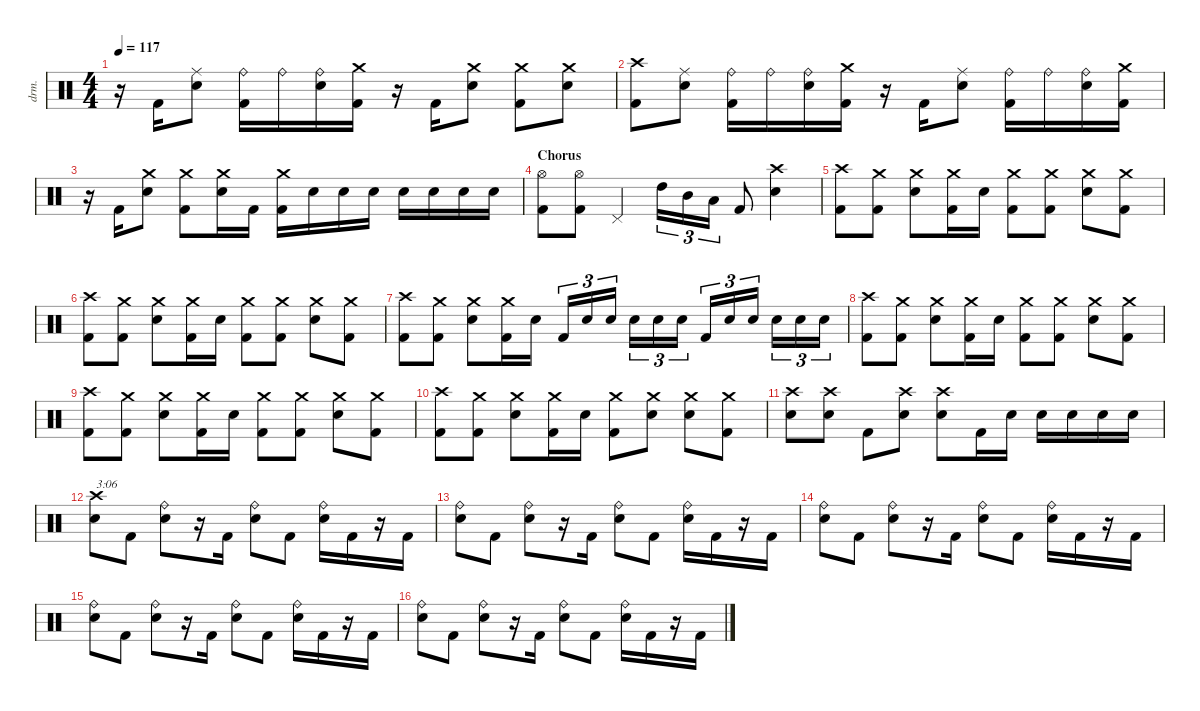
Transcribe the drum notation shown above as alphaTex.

\defaultSystemsLayout 4
\hideDynamics
\bracketExtendMode nobrackets
\otherSystemsTrackNameOrientation horizontal
\track ("Drums" "drm.") {instrument percussion}
\staff {score}
\articulation defaults
\ts (4 4)
\tempo 117
\clef neutral
\ks c
r.16{dy mf} "Kick (hit) 2".16 ("Snare (hit) 2" "Ride (middle)").8 ("Kick (hit) 2" "Ride (bell)").16 "Ride (bell)".16 ("Snare (hit) 2" "Ride (bell)").16 ("Kick (hit) 2" "Crash medium (hit)").16 r.16 "Kick (hit) 2".16 ("Snare (hit) 2" "Crash medium (hit)").8 ("Kick (hit) 2" "Crash medium (hit)").8 ("Snare (hit) 2" "Crash medium (hit)").8 |
("Kick (hit) 2" "Crash high (hit)").8 ("Snare (hit) 2" "Ride (middle)").8 ("Kick (hit) 2" "Ride (bell)").16 "Ride (bell)".16 ("Snare (hit) 2" "Ride (bell)").16 ("Kick (hit) 2" "Crash medium (hit)").16 r.16 "Kick (hit) 2".16 ("Snare (hit) 2" "Ride (middle)").8 ("Kick (hit) 2" "Ride (bell)").16 "Ride (bell)".16 ("Snare (hit) 2" "Ride (bell)").16 ("Kick (hit) 2" "Crash medium (hit)").16 |
r.16 "Kick (hit) 2".16 ("Snare (hit) 2" "Crash medium (hit)").8 ("Kick (hit) 2" "Crash medium (hit)").8 ("Snare (hit) 2" "Crash medium (hit)").16 "Kick (hit) 2".16 ("Kick (hit) 2" "Crash medium (hit)").16 "Snare (hit) 2".16 "Snare (hit) 2".16 "Snare (hit) 2".16 "Snare (hit) 2".16 "Snare (hit) 2".16 "Snare (hit) 2".16 "Snare (hit) 2".16 |
\section ("" "Chorus")
("Kick (hit) 2" "Hi-Hat (open)").8 ("Kick (hit) 2" "Hi-Hat (open)").8 "Pedal Hi-Hat (hit)".4 "High Tom (hit)".16{tu (3 2)} "Mid Tom (hit)".16{tu (3 2)} "Low Tom (hit)".16{tu (3 2)} "Kick (hit) 2".8 ("Snare (hit) 2" "Crash high (hit)").4 |
("Kick (hit) 2" "Crash high (hit)").8{dy f} ("Kick (hit) 2" "Crash medium (hit)").8 ("Snare (hit) 2" "Crash medium (hit)").8 ("Kick (hit) 2" "Crash medium (hit)").16 "Snare (hit) 2".16 ("Kick (hit) 2" "Crash medium (hit)").8 ("Kick (hit) 2" "Crash medium (hit)").8 ("Snare (hit) 2" "Crash medium (hit)").8 ("Kick (hit) 2" "Crash medium (hit)").8 |
("Kick (hit) 2" "Crash high (hit)").8 ("Kick (hit) 2" "Crash medium (hit)").8 ("Snare (hit) 2" "Crash medium (hit)").8 ("Kick (hit) 2" "Crash medium (hit)").16 "Snare (hit) 2".16 ("Kick (hit) 2" "Crash medium (hit)").8 ("Kick (hit) 2" "Crash medium (hit)").8 ("Snare (hit) 2" "Crash medium (hit)").8 ("Kick (hit) 2" "Crash medium (hit)").8 |
("Kick (hit) 2" "Crash high (hit)").8 ("Kick (hit) 2" "Crash medium (hit)").8 ("Snare (hit) 2" "Crash medium (hit)").8 ("Kick (hit) 2" "Crash medium (hit)").16 "Snare (hit) 2".16 "Kick (hit) 2".16{tu (3 2)} "Snare (hit) 2".16{tu (3 2)} "Snare (hit) 2".16{tu (3 2)} "Snare (hit) 2".16{tu (3 2)} "Snare (hit) 2".16{tu (3 2)} "Snare (hit) 2".16{tu (3 2)} "Kick (hit) 2".16{tu (3 2)} "Snare (hit) 2".16{tu (3 2)} "Snare (hit) 2".16{tu (3 2)} "Snare (hit) 2".16{tu (3 2)} "Snare (hit) 2".16{tu (3 2)} "Snare (hit) 2".16{tu (3 2)} |
("Kick (hit) 2" "Crash high (hit)").8 ("Kick (hit) 2" "Crash medium (hit)").8 ("Snare (hit) 2" "Crash medium (hit)").8 ("Kick (hit) 2" "Crash medium (hit)").16 "Snare (hit) 2".16 ("Kick (hit) 2" "Crash medium (hit)").8 ("Kick (hit) 2" "Crash medium (hit)").8 ("Snare (hit) 2" "Crash medium (hit)").8 ("Kick (hit) 2" "Crash medium (hit)").8 |
("Kick (hit) 2" "Crash high (hit)").8 ("Kick (hit) 2" "Crash medium (hit)").8 ("Snare (hit) 2" "Crash medium (hit)").8 ("Kick (hit) 2" "Crash medium (hit)").16 "Snare (hit) 2".16 ("Kick (hit) 2" "Crash medium (hit)").8 ("Kick (hit) 2" "Crash medium (hit)").8 ("Snare (hit) 2" "Crash medium (hit)").8 ("Kick (hit) 2" "Crash medium (hit)").8 |
("Kick (hit) 2" "Crash high (hit)").8 ("Kick (hit) 2" "Crash medium (hit)").8 ("Snare (hit) 2" "Crash medium (hit)").8 ("Kick (hit) 2" "Crash medium (hit)").16 "Snare (hit) 2".16 ("Kick (hit) 2" "Crash medium (hit)").8 ("Snare (hit) 2" "Crash medium (hit)").8 ("Snare (hit) 2" "Crash medium (hit)").8 ("Kick (hit) 2" "Crash medium (hit)").8 |
("Snare (hit) 2" "Crash high (hit)").8 ("Snare (hit) 2" "Crash high (hit)").8 "Kick (hit) 2".8 ("Snare (hit) 2" "Crash high (hit)").8 ("Snare (hit) 2" "Crash high (hit)").8 "Kick (hit) 2".16 "Snare (hit) 2".16 "Snare (hit) 2".16 "Snare (hit) 2".16 "Snare (hit) 2".16 "Snare (hit) 2".16 |
("Snare (hit) 2" "Crash high (hit)").8{txt "3:06"} "Kick (hit) 2".8 ("Snare (hit) 2" "Ride (bell)").8 r.16 "Kick (hit) 2".16 ("Snare (hit) 2" "Ride (bell)").8 "Kick (hit) 2".8 ("Snare (hit) 2" "Ride (bell)").16 "Kick (hit) 2".16 r.16 "Kick (hit) 2".16 |
("Snare (hit) 2" "Ride (bell)").8 "Kick (hit) 2".8 ("Snare (hit) 2" "Ride (bell)").8 r.16 "Kick (hit) 2".16 ("Snare (hit) 2" "Ride (bell)").8 "Kick (hit) 2".8 ("Snare (hit) 2" "Ride (bell)").16 "Kick (hit) 2".16 r.16 "Kick (hit) 2".16 |
("Snare (hit) 2" "Ride (bell)").8 "Kick (hit) 2".8 ("Snare (hit) 2" "Ride (bell)").8 r.16 "Kick (hit) 2".16 ("Snare (hit) 2" "Ride (bell)").8 "Kick (hit) 2".8 ("Snare (hit) 2" "Ride (bell)").16 "Kick (hit) 2".16 r.16 "Kick (hit) 2".16 |
("Snare (hit) 2" "Ride (bell)").8 "Kick (hit) 2".8 ("Snare (hit) 2" "Ride (bell)").8 r.16 "Kick (hit) 2".16 ("Snare (hit) 2" "Ride (bell)").8 "Kick (hit) 2".8 ("Snare (hit) 2" "Ride (bell)").16 "Kick (hit) 2".16 r.16 "Kick (hit) 2".16 |
("Snare (hit) 2" "Ride (bell)").8 "Kick (hit) 2".8 ("Snare (hit) 2" "Ride (bell)").8 r.16 "Kick (hit) 2".16 ("Snare (hit) 2" "Ride (bell)").8 "Kick (hit) 2".8 ("Snare (hit) 2" "Ride (bell)").16 "Kick (hit) 2".16 r.16 "Kick (hit) 2".16
